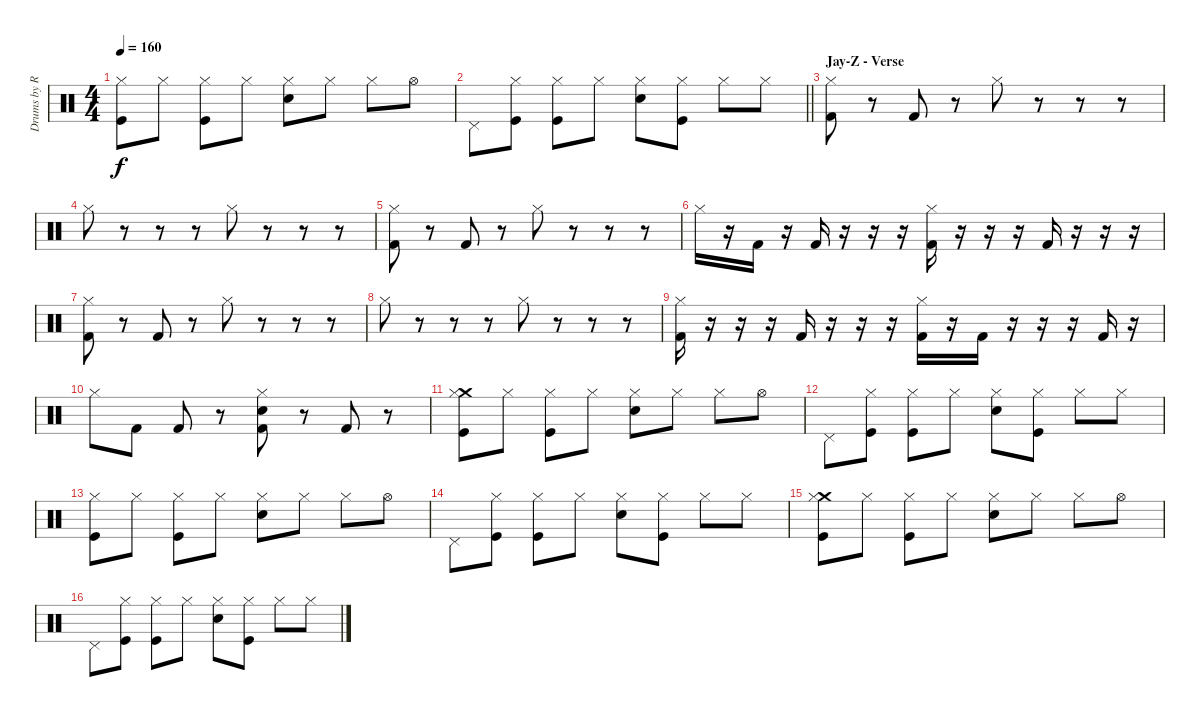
\track ("Drums by Rob Bourdon" "Drums by R") {instrument percussion}
\staff {score}
\articulation defaults
\ts (4 4)
\tempo 160
\clef neutral
\ks c
("Hi-Hat (closed)" "Kick (hit)").8{dy f} "Hi-Hat (closed)".8 ("Hi-Hat (closed)" "Kick (hit)").8 "Hi-Hat (closed)".8 ("Hi-Hat (closed)" "Snare (hit) 2").8 "Hi-Hat (closed)".8 "Hi-Hat (closed)".8 "Hi-Hat (open)".8 |
\barLineRight lightlight "Pedal Hi-Hat (hit)".8
("Hi-Hat (closed)" "Kick (hit)").8 ("Hi-Hat (closed)" "Kick (hit)").8 "Hi-Hat (closed)".8 ("Hi-Hat (closed)" "Snare (hit) 2").8 ("Hi-Hat (closed)" "Kick (hit)").8 "Hi-Hat (closed)".8 "Hi-Hat (closed)".8 |
\section ("" "Jay-Z - Verse")
("Hi-Hat (closed)" "Kick (hit) 2").8 r.8 "Kick (hit) 2".8 r.8 "Hi-Hat (closed)".8 r.8 r.8 r.8 |
"Hi-Hat (closed)".8 r.8 r.8 r.8 "Hi-Hat (closed)".8 r.8 r.8 r.8 |
("Hi-Hat (closed)" "Kick (hit) 2").8 r.8 "Kick (hit) 2".8 r.8 "Hi-Hat (closed)".8 r.8 r.8 r.8 |
"Hi-Hat (closed)".16 r.16 "Kick (hit) 2".16 r.16 "Kick (hit) 2".16 r.16 r.16 r.16 ("Hi-Hat (closed)" "Kick (hit) 2").16 r.16 r.16 r.16 "Kick (hit) 2".16 r.16 r.16 r.16 |
("Hi-Hat (closed)" "Kick (hit) 2").8 r.8 "Kick (hit) 2".8 r.8 "Hi-Hat (closed)".8 r.8 r.8 r.8 |
"Hi-Hat (closed)".8 r.8 r.8 r.8 "Hi-Hat (closed)".8 r.8 r.8 r.8 |
("Hi-Hat (closed)" "Kick (hit) 2").16 r.16 r.16 r.16 "Kick (hit) 2".16 r.16 r.16 r.16 ("Hi-Hat (closed)" "Kick (hit) 2").16 r.16 "Kick (hit) 2".16 r.16 r.16 r.16 "Kick (hit) 2".16 r.16 |
"Hi-Hat (closed)".8 "Kick (hit) 2".8 "Kick (hit) 2".8 r.8 ("Hi-Hat (closed)" "Kick (hit) 2" "Snare (hit) 2").8 r.8 "Kick (hit) 2".8 r.8 |
("Crash medium (hit)" "Hi-Hat (closed)" "Kick (hit)").8 "Hi-Hat (closed)".8 ("Hi-Hat (closed)" "Kick (hit)").8 "Hi-Hat (closed)".8 ("Hi-Hat (closed)" "Snare (hit) 2").8 "Hi-Hat (closed)".8 "Hi-Hat (closed)".8 "Hi-Hat (open)".8 |
"Pedal Hi-Hat (hit)".8 ("Hi-Hat (closed)" "Kick (hit)").8 ("Hi-Hat (closed)" "Kick (hit)").8 "Hi-Hat (closed)".8 ("Hi-Hat (closed)" "Snare (hit) 2").8 ("Hi-Hat (closed)" "Kick (hit)").8 "Hi-Hat (closed)".8 "Hi-Hat (closed)".8 |
("Hi-Hat (closed)" "Kick (hit)").8 "Hi-Hat (closed)".8 ("Hi-Hat (closed)" "Kick (hit)").8 "Hi-Hat (closed)".8 ("Hi-Hat (closed)" "Snare (hit) 2").8 "Hi-Hat (closed)".8 "Hi-Hat (closed)".8 "Hi-Hat (open)".8 |
"Pedal Hi-Hat (hit)".8 ("Hi-Hat (closed)" "Kick (hit)").8 ("Hi-Hat (closed)" "Kick (hit)").8 "Hi-Hat (closed)".8 ("Hi-Hat (closed)" "Snare (hit) 2").8 ("Hi-Hat (closed)" "Kick (hit)").8 "Hi-Hat (closed)".8 "Hi-Hat (closed)".8 |
("Crash medium (hit)" "Hi-Hat (closed)" "Kick (hit)").8 "Hi-Hat (closed)".8 ("Hi-Hat (closed)" "Kick (hit)").8 "Hi-Hat (closed)".8 ("Hi-Hat (closed)" "Snare (hit) 2").8 "Hi-Hat (closed)".8 "Hi-Hat (closed)".8 "Hi-Hat (open)".8 |
"Pedal Hi-Hat (hit)".8 ("Hi-Hat (closed)" "Kick (hit)").8 ("Hi-Hat (closed)" "Kick (hit)").8 "Hi-Hat (closed)".8 ("Hi-Hat (closed)" "Snare (hit) 2").8 ("Hi-Hat (closed)" "Kick (hit)").8 "Hi-Hat (closed)".8 "Hi-Hat (closed)".8
